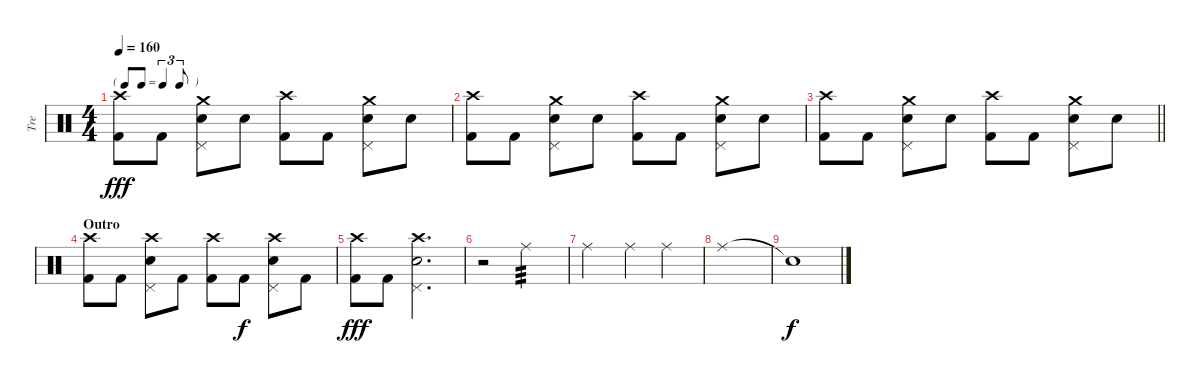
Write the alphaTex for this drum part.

\track ("Tre" "Tre") {instrument percussion}
\staff {score}
\articulation defaults
\ts (4 4)
\tf triplet8th
\tempo 160
\clef neutral
\ks c
("Crash high (hit)" "Kick (hit) 2").8{dy fff} "Kick (hit) 2".8 ("Crash medium (hit)" "Snare (hit) 2" "Pedal Hi-Hat (hit)").8 "Snare (hit) 2".8 ("Crash high (hit)" "Kick (hit) 2").8 "Kick (hit) 2".8 ("Crash medium (hit)" "Snare (hit) 2" "Pedal Hi-Hat (hit)").8 "Snare (hit) 2".8 |
("Crash high (hit)" "Kick (hit) 2").8 "Kick (hit) 2".8 ("Crash medium (hit)" "Snare (hit) 2" "Pedal Hi-Hat (hit)").8 "Snare (hit) 2".8 ("Crash high (hit)" "Kick (hit) 2").8 "Kick (hit) 2".8 ("Crash medium (hit)" "Snare (hit) 2" "Pedal Hi-Hat (hit)").8 "Snare (hit) 2".8 |
\barLineRight lightlight
("Crash high (hit)" "Kick (hit) 2").8 "Kick (hit) 2".8 ("Crash medium (hit)" "Snare (hit) 2" "Pedal Hi-Hat (hit)").8 "Snare (hit) 2".8 ("Crash high (hit)" "Kick (hit) 2").8 "Kick (hit) 2".8 ("Crash medium (hit)" "Snare (hit) 2" "Pedal Hi-Hat (hit)").8 "Snare (hit) 2".8 |
\section ("" "Outro")
("Crash high (hit)" "Kick (hit) 2").8 "Kick (hit) 2".8 ("Crash high (hit)" "Snare (hit) 2" "Pedal Hi-Hat (hit)").8 "Kick (hit) 2".8 ("Crash high (hit)" "Kick (hit) 2").8 "Kick (hit) 2".8{dy f} ("Crash high (hit)" "Snare (hit) 2" "Pedal Hi-Hat (hit)").8 "Kick (hit) 2".8 |
("Crash high (hit)" "Kick (hit) 2").8{dy fff} "Kick (hit) 2".8 ("Crash high (hit)" "Snare (hit) 2" "Pedal Hi-Hat (hit)").2{d} |
r.2 "Ride (middle)".2{tp 3} |
"Ride (middle)".2 "Ride (middle)".4 "Ride (middle)".4 |
"Ride (middle)".1 |
"Snare (hit)"{t}.1{dy f}
